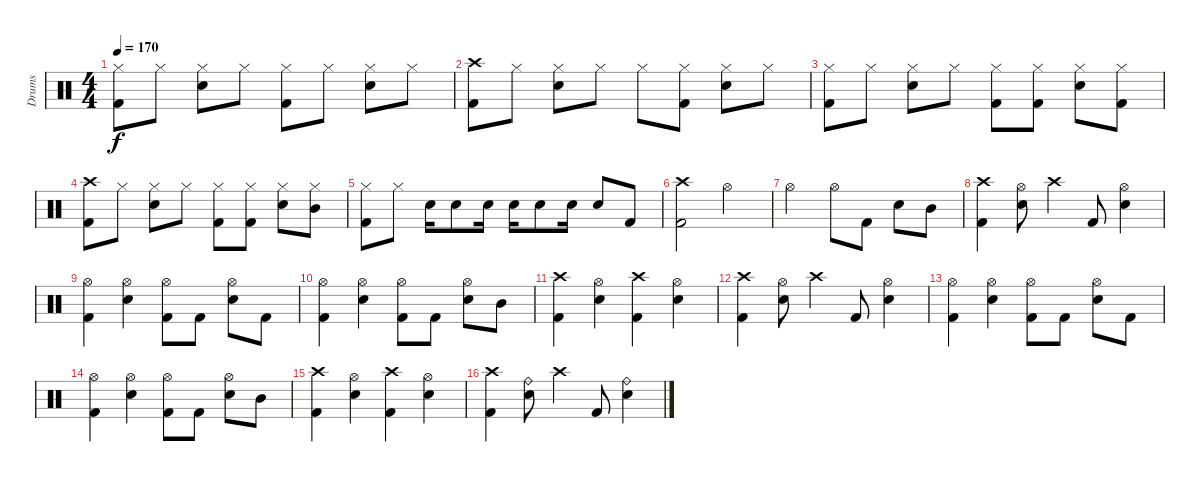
\track ("Drums" "Drums") {instrument percussion}
\staff {score}
\articulation defaults
\ts (4 4)
\tempo 170
\clef neutral
\ks c
("Hi-Hat (closed)" "Kick (hit) 2").8{dy f} "Hi-Hat (closed)".8 ("Hi-Hat (closed)" "Snare (hit) 2").8 "Hi-Hat (closed)".8 ("Hi-Hat (closed)" "Kick (hit) 2").8 "Hi-Hat (closed)".8 ("Hi-Hat (closed)" "Snare (hit) 2").8 "Hi-Hat (closed)".8 |
("Crash high (hit)" "Kick (hit) 2").8 "Hi-Hat (closed)".8 ("Hi-Hat (closed)" "Snare (hit) 2").8 "Hi-Hat (closed)".8 "Hi-Hat (closed)".8 ("Hi-Hat (closed)" "Kick (hit) 2").8 ("Hi-Hat (closed)" "Snare (hit) 2").8 "Hi-Hat (closed)".8 |
("Hi-Hat (closed)" "Kick (hit) 2").8 "Hi-Hat (closed)".8 ("Hi-Hat (closed)" "Snare (hit) 2").8 "Hi-Hat (closed)".8 ("Hi-Hat (closed)" "Kick (hit) 2").8 ("Hi-Hat (closed)" "Kick (hit) 2").8 ("Hi-Hat (closed)" "Snare (hit) 2").8 ("Hi-Hat (closed)" "Kick (hit) 2").8 |
("Crash high (hit)" "Kick (hit) 2").8 "Hi-Hat (closed)".8 ("Hi-Hat (closed)" "Snare (hit) 2").8 "Hi-Hat (closed)".8 ("Hi-Hat (closed)" "Kick (hit) 2").8 ("Hi-Hat (closed)" "Kick (hit) 2").8 ("Hi-Hat (closed)" "Snare (hit) 2").8 ("Hi-Hat (closed)" "Mid Tom (hit)").8 |
("Hi-Hat (closed)" "Kick (hit) 2").8 "Hi-Hat (closed)".8 "Snare (hit) 2".16 "Snare (hit) 2".8 "Snare (hit) 2".16 "Snare (hit) 2".16 "Snare (hit) 2".8 "Snare (hit) 2".16 "Snare (hit) 2".8 "Kick (hit) 2".8 |
("Crash high (hit)" "Kick (hit) 2").2 "Hi-Hat (open)".2 |
"Hi-Hat (open)".2 "Hi-Hat (open)".8 "Kick (hit) 2".8 "Snare (hit) 2".8 "Mid Tom (hit)".8 |
("Crash high (hit)" "Kick (hit) 2").4 ("Hi-Hat (open)" "Snare (hit) 2").8 "Crash high (hit)".4 "Kick (hit) 2".8 ("Hi-Hat (open)" "Snare (hit) 2").4 |
("Hi-Hat (open)" "Kick (hit) 2").4 ("Hi-Hat (open)" "Snare (hit) 2").4 ("Hi-Hat (open)" "Kick (hit) 2").8 "Kick (hit) 2".8 ("Hi-Hat (open)" "Snare (hit) 2").8 "Kick (hit) 2".8 |
("Hi-Hat (open)" "Kick (hit) 2").4 ("Hi-Hat (open)" "Snare (hit) 2").4 ("Hi-Hat (open)" "Kick (hit) 2").8 "Kick (hit) 2".8 ("Hi-Hat (open)" "Snare (hit) 2").8 "Mid Tom (hit)".8 |
("Crash high (hit)" "Kick (hit) 2").4 ("Hi-Hat (open)" "Snare (hit) 2").4 ("Crash high (hit)" "Kick (hit) 2").4 ("Hi-Hat (open)" "Snare (hit) 2").4 |
("Crash high (hit)" "Kick (hit) 2").4 ("Hi-Hat (open)" "Snare (hit) 2").8 "Crash high (hit)".4 "Kick (hit) 2".8 ("Hi-Hat (open)" "Snare (hit) 2").4 |
("Hi-Hat (open)" "Kick (hit) 2").4 ("Hi-Hat (open)" "Snare (hit) 2").4 ("Hi-Hat (open)" "Kick (hit) 2").8 "Kick (hit) 2".8 ("Hi-Hat (open)" "Snare (hit) 2").8 "Kick (hit) 2".8 |
("Hi-Hat (open)" "Kick (hit) 2").4 ("Hi-Hat (open)" "Snare (hit) 2").4 ("Hi-Hat (open)" "Kick (hit) 2").8 "Kick (hit) 2".8 ("Hi-Hat (open)" "Snare (hit) 2").8 "Mid Tom (hit)".8 |
("Crash high (hit)" "Kick (hit) 2").4 ("Hi-Hat (open)" "Snare (hit) 2").4 ("Crash high (hit)" "Kick (hit) 2").4 ("Hi-Hat (open)" "Snare (hit) 2").4 |
("Crash high (hit)" "Kick (hit) 2").4 ("Ride (bell)" "Snare (hit) 2").8 "Crash high (hit)".4 "Kick (hit) 2".8 ("Ride (bell)" "Snare (hit) 2").4
